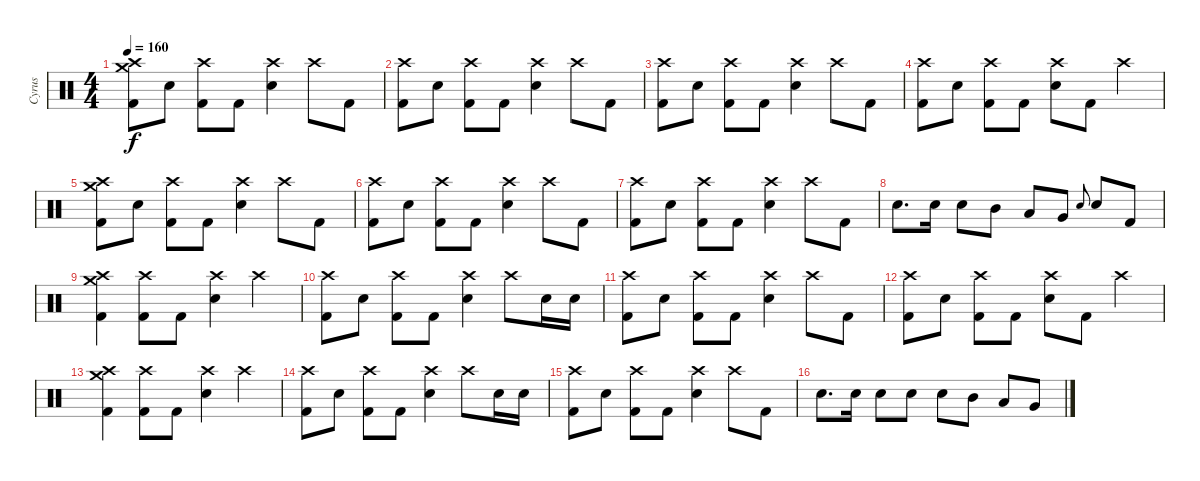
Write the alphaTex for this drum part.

\track ("Cyrus" "Cyrus") {instrument percussion}
\staff {score}
\articulation defaults
\ts (4 4)
\tempo 160
\clef neutral
\ks c
("Crash high (hit)" "Crash medium (hit)" "Kick (hit) 2").8{dy f} "Snare (hit) 2".8 ("Crash high (hit)" "Kick (hit) 2").8 "Kick (hit) 2".8 ("Crash high (hit)" "Snare (hit) 2").4 "Crash high (hit)".8 "Kick (hit) 2".8 |
("Crash high (hit)" "Kick (hit) 2").8 "Snare (hit) 2".8 ("Crash high (hit)" "Kick (hit) 2").8 "Kick (hit) 2".8 ("Crash high (hit)" "Snare (hit) 2").4 "Crash high (hit)".8 "Kick (hit) 2".8 |
("Crash high (hit)" "Kick (hit) 2").8 "Snare (hit) 2".8 ("Crash high (hit)" "Kick (hit) 2").8 "Kick (hit) 2".8 ("Crash high (hit)" "Snare (hit) 2").4 "Crash high (hit)".8 "Kick (hit) 2".8 |
("Crash high (hit)" "Kick (hit) 2").8 "Snare (hit) 2".8 ("Crash high (hit)" "Kick (hit) 2").8 "Kick (hit) 2".8 ("Crash high (hit)" "Snare (hit) 2").8 "Kick (hit) 2".8 "Crash high (hit)".4 |
("Crash high (hit)" "Crash medium (hit)" "Kick (hit) 2").8 "Snare (hit) 2".8 ("Crash high (hit)" "Kick (hit) 2").8 "Kick (hit) 2".8 ("Crash high (hit)" "Snare (hit) 2").4 "Crash high (hit)".8 "Kick (hit) 2".8 |
("Crash high (hit)" "Kick (hit) 2").8 "Snare (hit) 2".8 ("Crash high (hit)" "Kick (hit) 2").8 "Kick (hit) 2".8 ("Crash high (hit)" "Snare (hit) 2").4 "Crash high (hit)".8 "Kick (hit) 2".8 |
("Crash high (hit)" "Kick (hit) 2").8 "Snare (hit) 2".8 ("Crash high (hit)" "Kick (hit) 2").8 "Kick (hit) 2".8 ("Crash high (hit)" "Snare (hit) 2").4 "Crash high (hit)".8 "Kick (hit) 2".8 |
"Snare (hit) 2".8{d} "Snare (hit) 2".16 "Snare (hit) 2".8 "Mid Tom (hit)".8 "Low Tom (hit)".8 "Very Low Tom (hit)".8 "Snare (hit) 2".8{gr onbeat} "Snare (hit) 2".8 "Kick (hit) 2".8 |
("Crash high (hit)" "Crash medium (hit)" "Kick (hit) 2").4 ("Crash high (hit)" "Kick (hit) 2").8 "Kick (hit) 2".8 ("Crash high (hit)" "Snare (hit) 2").4 "Crash high (hit)".4 |
("Crash high (hit)" "Kick (hit) 2").8 "Snare (hit) 2".8 ("Crash high (hit)" "Kick (hit) 2").8 "Kick (hit) 2".8 ("Crash high (hit)" "Snare (hit) 2").4 "Crash high (hit)".8 "Snare (hit) 2".16 "Snare (hit) 2".16 |
("Crash high (hit)" "Kick (hit) 2").8 "Snare (hit) 2".8 ("Crash high (hit)" "Kick (hit) 2").8 "Kick (hit) 2".8 ("Crash high (hit)" "Snare (hit) 2").4 "Crash high (hit)".8 "Kick (hit) 2".8 |
("Crash high (hit)" "Kick (hit) 2").8 "Snare (hit) 2".8 ("Crash high (hit)" "Kick (hit) 2").8 "Kick (hit) 2".8 ("Crash high (hit)" "Snare (hit) 2").8 "Kick (hit) 2".8 "Crash high (hit)".4 |
("Crash high (hit)" "Crash medium (hit)" "Kick (hit) 2").4 ("Crash high (hit)" "Kick (hit) 2").8 "Kick (hit) 2".8 ("Crash high (hit)" "Snare (hit) 2").4 "Crash high (hit)".4 |
("Crash high (hit)" "Kick (hit) 2").8 "Snare (hit) 2".8 ("Crash high (hit)" "Kick (hit) 2").8 "Kick (hit) 2".8 ("Crash high (hit)" "Snare (hit) 2").4 "Crash high (hit)".8 "Snare (hit) 2".16 "Snare (hit) 2".16 |
("Crash high (hit)" "Kick (hit) 2").8 "Snare (hit) 2".8 ("Crash high (hit)" "Kick (hit) 2").8 "Kick (hit) 2".8 ("Crash high (hit)" "Snare (hit) 2").4 "Crash high (hit)".8 "Kick (hit) 2".8 |
"Snare (hit) 2".8{d} "Snare (hit) 2".16 "Snare (hit) 2".8 "Snare (hit) 2".8 "Snare (hit) 2".8 "Mid Tom (hit)".8 "Low Tom (hit)".8 "Very Low Tom (hit)".8
